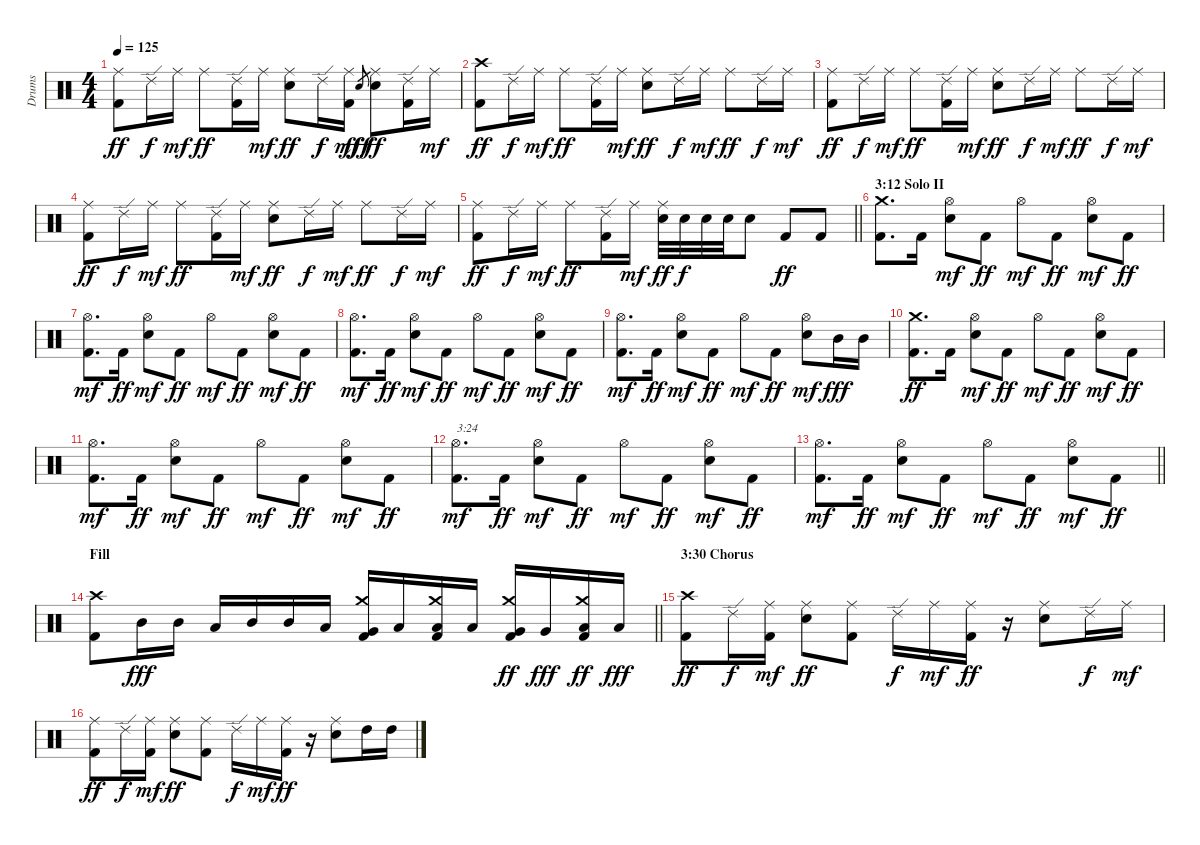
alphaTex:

\track ("Drums" "Drums") {instrument percussion}
\staff {score}
\articulation defaults
\ts (4 4)
\tempo 125
\clef neutral
\ks c
("Kick (hit) 2" "Ride (middle)").8{dy ff} "Ride (edge) 2".16{dy f} "Ride (middle)".16{dy mf} "Ride (middle)".8{dy ff} ("Kick (hit) 2" "Ride (edge) 2").16 "Ride (middle)".16{dy mf} ("Electric Snare (hit)" "Ride (middle)").8{dy ff} "Ride (edge) 2".16{dy f} ("Kick (hit) 2" "Ride (middle)").16{dy mf} "Electric Snare (hit)".8{gr dy fff} ("Electric Snare (hit)" "Ride (middle)").8{dy ff} ("Kick (hit) 2" "Ride (edge) 2").16 "Ride (middle)".16{dy mf} |
("Kick (hit) 2" "Crash high (hit)").8{dy ff} "Ride (edge) 2".16{dy f} "Ride (middle)".16{dy mf} "Ride (middle)".8{dy ff} ("Kick (hit) 2" "Ride (edge) 2").16 "Ride (middle)".16{dy mf} ("Electric Snare (hit)" "Ride (middle)").8{dy ff} "Ride (edge) 2".16{dy f} "Ride (middle)".16{dy mf} "Ride (middle)".8{dy ff} "Ride (edge) 2".16{dy f} "Ride (middle)".16{dy mf} |
("Kick (hit) 2" "Ride (middle)").8{dy ff} "Ride (edge) 2".16{dy f} "Ride (middle)".16{dy mf} "Ride (middle)".8{dy ff} ("Kick (hit) 2" "Ride (edge) 2").16 "Ride (middle)".16{dy mf} ("Electric Snare (hit)" "Ride (middle)").8{dy ff} "Ride (edge) 2".16{dy f} "Ride (middle)".16{dy mf} "Ride (middle)".8{dy ff} "Ride (edge) 2".16{dy f} "Ride (middle)".16{dy mf} |
("Kick (hit) 2" "Ride (middle)").8{dy ff} "Ride (edge) 2".16{dy f} "Ride (middle)".16{dy mf} "Ride (middle)".8{dy ff} ("Kick (hit) 2" "Ride (edge) 2").16 "Ride (middle)".16{dy mf} ("Electric Snare (hit)" "Ride (middle)").8{dy ff} "Ride (edge) 2".16{dy f} "Ride (middle)".16{dy mf} "Ride (middle)".8{dy ff} "Ride (edge) 2".16{dy f} "Ride (middle)".16{dy mf} |
\barLineRight lightlight
("Kick (hit) 2" "Ride (middle)").8{dy ff} "Ride (edge) 2".16{dy f} "Ride (middle)".16{dy mf} "Ride (middle)".8{dy ff} ("Kick (hit) 2" "Ride (edge) 2").16 "Ride (middle)".16{dy mf} ("Electric Snare (hit)" "Ride (middle)").32{dy ff} "Electric Snare (hit)".32{dy f} "Electric Snare (hit)".32 "Electric Snare (hit)".32 "Electric Snare (hit)".8 "Kick (hit) 2".8{dy ff} "Kick (hit) 2".8 |
\section ("" "3:12 Solo II")
("Kick (hit) 2" "Crash medium (hit)").8{d} "Kick (hit) 2".16 ("Electric Snare (hit)" "Hi-Hat (open)").8{dy mf} "Kick (hit) 2".8{dy ff} "Hi-Hat (open)".8{dy mf} "Kick (hit) 2".8{dy ff} ("Electric Snare (hit)" "Hi-Hat (open)").8{dy mf} "Kick (hit) 2".8{dy ff} |
("Kick (hit) 2" "Hi-Hat (open)").8{d dy mf} "Kick (hit) 2".16{dy ff} ("Electric Snare (hit)" "Hi-Hat (open)").8{dy mf} "Kick (hit) 2".8{dy ff} "Hi-Hat (open)".8{dy mf} "Kick (hit) 2".8{dy ff} ("Electric Snare (hit)" "Hi-Hat (open)").8{dy mf} "Kick (hit) 2".8{dy ff} |
("Kick (hit) 2" "Hi-Hat (open)").8{d dy mf} "Kick (hit) 2".16{dy ff} ("Electric Snare (hit)" "Hi-Hat (open)").8{dy mf} "Kick (hit) 2".8{dy ff} "Hi-Hat (open)".8{dy mf} "Kick (hit) 2".8{dy ff} ("Electric Snare (hit)" "Hi-Hat (open)").8{dy mf} "Kick (hit) 2".8{dy ff} |
("Kick (hit) 2" "Hi-Hat (open)").8{d dy mf} "Kick (hit) 2".16{dy ff} ("Electric Snare (hit)" "Hi-Hat (open)").8{dy mf} "Kick (hit) 2".8{dy ff} "Hi-Hat (open)".8{dy mf} "Kick (hit) 2".8{dy ff} ("Electric Snare (hit)" "Hi-Hat (open)").8{dy mf} "Mid Tom (hit)".16{dy fff} "Mid Tom (hit)".16 |
("Kick (hit) 2" "Crash medium (hit)").8{d dy ff} "Kick (hit) 2".16 ("Electric Snare (hit)" "Hi-Hat (open)").8{dy mf} "Kick (hit) 2".8{dy ff} "Hi-Hat (open)".8{dy mf} "Kick (hit) 2".8{dy ff} ("Electric Snare (hit)" "Hi-Hat (open)").8{dy mf} "Kick (hit) 2".8{dy ff} |
("Kick (hit) 2" "Hi-Hat (open)").8{d dy mf} "Kick (hit) 2".16{dy ff} ("Electric Snare (hit)" "Hi-Hat (open)").8{dy mf} "Kick (hit) 2".8{dy ff} "Hi-Hat (open)".8{dy mf} "Kick (hit) 2".8{dy ff} ("Electric Snare (hit)" "Hi-Hat (open)").8{dy mf} "Kick (hit) 2".8{dy ff} |
("Kick (hit) 2" "Hi-Hat (open)").8{d txt "3:24" dy mf} "Kick (hit) 2".16{dy ff} ("Electric Snare (hit)" "Hi-Hat (open)").8{dy mf} "Kick (hit) 2".8{dy ff} "Hi-Hat (open)".8{dy mf} "Kick (hit) 2".8{dy ff} ("Electric Snare (hit)" "Hi-Hat (open)").8{dy mf} "Kick (hit) 2".8{dy ff} |
\barLineRight lightlight
("Kick (hit) 2" "Hi-Hat (open)").8{d dy mf} "Kick (hit) 2".16{dy ff} ("Electric Snare (hit)" "Hi-Hat (open)").8{dy mf} "Kick (hit) 2".8{dy ff} "Hi-Hat (open)".8{dy mf} "Kick (hit) 2".8{dy ff} ("Electric Snare (hit)" "Hi-Hat (open)").8{dy mf} "Kick (hit) 2".8{dy ff} |
\section ("" "Fill")
\barLineRight lightlight
("Kick (hit) 2" "Crash high (hit)").8 "Mid Tom (hit)".16{dy fff} "Mid Tom (hit)".16 "Low Tom (hit)".16 "Mid Tom (hit)".16 "Mid Tom (hit)".16 "Low Tom (hit)".16 ("Kick (hit) 2" "Very Low Tom (hit)" "Crash medium (hit)").16 "Low Tom (hit)".16 ("Kick (hit) 2" "Low Tom (hit)" "Crash medium (hit)").16 "Low Tom (hit)".16 ("Kick (hit) 2" "Very Low Tom (hit)" "Crash medium (hit)").16{dy ff} "Very Low Tom (hit)".16{dy fff} ("Kick (hit) 2" "Low Floor Tom (hit)" "Crash medium (hit)").16{dy ff} "Low Floor Tom (hit)".16{dy fff} |
\section ("" "3:30 Chorus")
("Kick (hit) 2" "Crash high (hit)").8{dy ff} "Ride (edge) 2".16{dy f} ("Kick (hit) 2" "Ride (middle)").16{dy mf} ("Electric Snare (hit)" "Ride (middle)").8{dy ff} ("Kick (hit) 2" "Ride (middle)").8 "Ride (edge) 2".16{dy f} "Ride (middle)".16{dy mf} ("Kick (hit) 2" "Ride (middle)").16{dy ff} r.16 ("Electric Snare (hit)" "Ride (middle)").8 "Ride (edge) 2".16{dy f} "Ride (middle)".16{dy mf} |
("Kick (hit) 2" "Ride (middle)").8{dy ff} "Ride (edge) 2".16{dy f} ("Kick (hit) 2" "Ride (middle)").16{dy mf} ("Electric Snare (hit)" "Ride (middle)").8{dy ff} ("Kick (hit) 2" "Ride (middle)").8 "Ride (edge) 2".16{dy f} "Ride (middle)".16{dy mf} ("Kick (hit) 2" "Ride (middle)").16{dy ff} r.16 ("Electric Snare (hit)" "Ride (middle)").8 "High Tom (hit)".16 "High Tom (hit)".16
